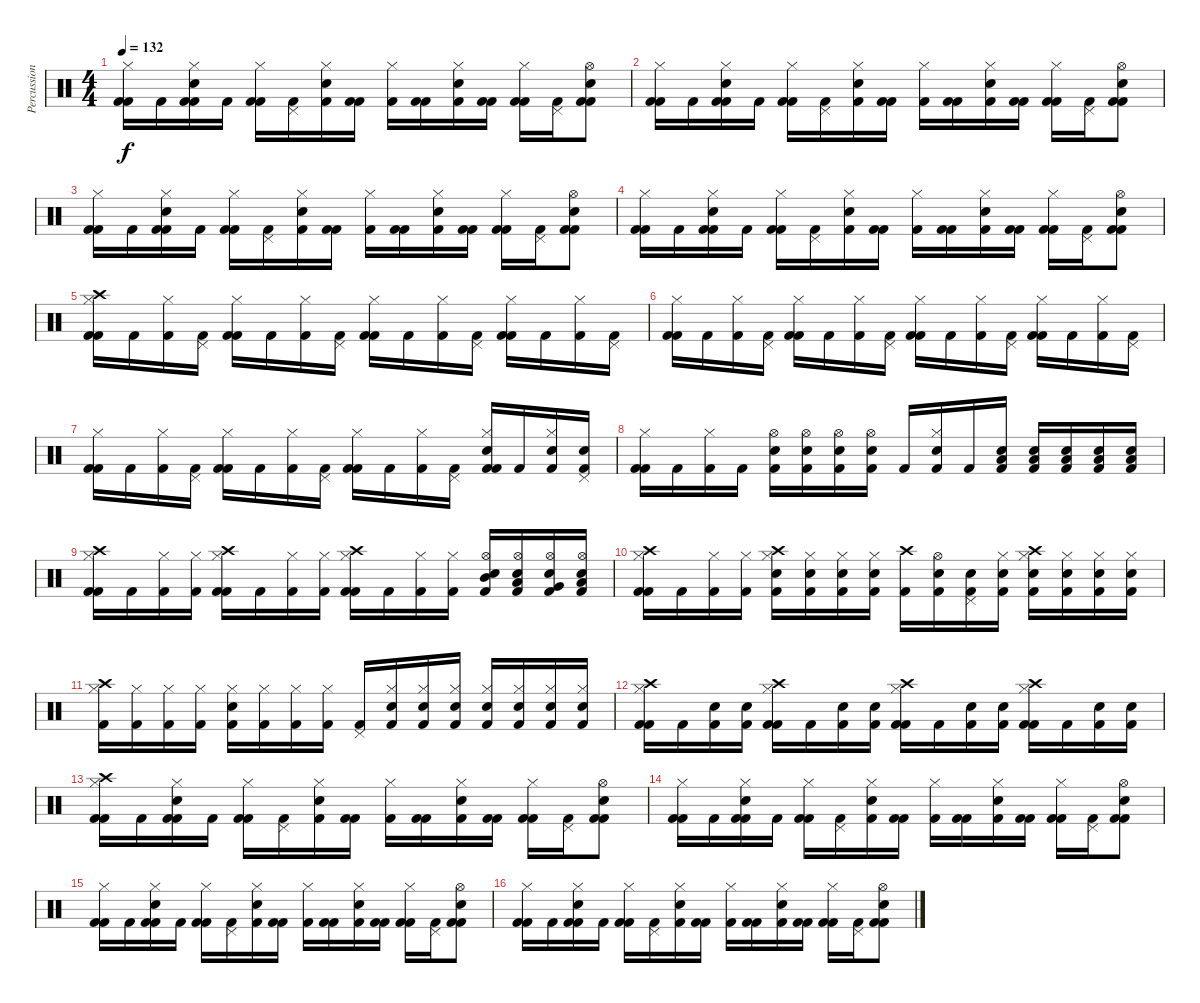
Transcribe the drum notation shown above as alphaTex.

\track ("Percussion" "Percussion") {instrument percussion}
\staff {score}
\articulation defaults
\ts (4 4)
\tempo 132
\clef neutral
\ks c
("Kick (hit) 2" "Hi-Hat (closed)" "Kick (hit) 2").16{dy f} "Kick (hit) 2".16 ("Kick (hit) 2" "Snare (hit) 2" "Hi-Hat (closed)" "Kick (hit) 2").16 "Kick (hit) 2".16 ("Kick (hit) 2" "Hi-Hat (closed)" "Kick (hit) 2").16 ("Pedal Hi-Hat (hit)" "Kick (hit) 2").16 ("Snare (hit) 2" "Hi-Hat (closed)" "Kick (hit) 2").16 ("Kick (hit) 2" "Kick (hit) 2").16 ("Hi-Hat (closed)" "Kick (hit) 2").16 ("Kick (hit) 2" "Kick (hit) 2").16 ("Snare (hit) 2" "Hi-Hat (closed)" "Kick (hit) 2").16 ("Kick (hit) 2" "Kick (hit) 2").16 ("Kick (hit) 2" "Hi-Hat (closed)" "Kick (hit) 2").16 ("Pedal Hi-Hat (hit)" "Kick (hit) 2").16 ("Kick (hit) 2" "Snare (hit) 2" "Hi-Hat (open)" "Kick (hit) 2").8 |
("Kick (hit) 2" "Hi-Hat (closed)" "Kick (hit) 2").16 "Kick (hit) 2".16 ("Kick (hit) 2" "Snare (hit) 2" "Hi-Hat (closed)" "Kick (hit) 2").16 "Kick (hit) 2".16 ("Kick (hit) 2" "Hi-Hat (closed)" "Kick (hit) 2").16 ("Pedal Hi-Hat (hit)" "Kick (hit) 2").16 ("Snare (hit) 2" "Hi-Hat (closed)" "Kick (hit) 2").16 ("Kick (hit) 2" "Kick (hit) 2").16 ("Hi-Hat (closed)" "Kick (hit) 2").16 ("Kick (hit) 2" "Kick (hit) 2").16 ("Snare (hit) 2" "Hi-Hat (closed)" "Kick (hit) 2").16 ("Kick (hit) 2" "Kick (hit) 2").16 ("Kick (hit) 2" "Hi-Hat (closed)" "Kick (hit) 2").16 ("Pedal Hi-Hat (hit)" "Kick (hit) 2").16 ("Kick (hit) 2" "Snare (hit) 2" "Hi-Hat (open)" "Kick (hit) 2").8 |
("Kick (hit) 2" "Hi-Hat (closed)" "Kick (hit) 2").16 "Kick (hit) 2".16 ("Kick (hit) 2" "Snare (hit) 2" "Hi-Hat (closed)" "Kick (hit) 2").16 "Kick (hit) 2".16 ("Kick (hit) 2" "Hi-Hat (closed)" "Kick (hit) 2").16 ("Pedal Hi-Hat (hit)" "Kick (hit) 2").16 ("Snare (hit) 2" "Hi-Hat (closed)" "Kick (hit) 2").16 ("Kick (hit) 2" "Kick (hit) 2").16 ("Hi-Hat (closed)" "Kick (hit) 2").16 ("Kick (hit) 2" "Kick (hit) 2").16 ("Snare (hit) 2" "Hi-Hat (closed)" "Kick (hit) 2").16 ("Kick (hit) 2" "Kick (hit) 2").16 ("Kick (hit) 2" "Hi-Hat (closed)" "Kick (hit) 2").16 ("Pedal Hi-Hat (hit)" "Kick (hit) 2").16 ("Kick (hit) 2" "Snare (hit) 2" "Hi-Hat (open)" "Kick (hit) 2").8 |
("Kick (hit) 2" "Hi-Hat (closed)" "Kick (hit) 2").16 "Kick (hit) 2".16 ("Kick (hit) 2" "Snare (hit) 2" "Hi-Hat (closed)" "Kick (hit) 2").16 "Kick (hit) 2".16 ("Kick (hit) 2" "Hi-Hat (closed)" "Kick (hit) 2").16 ("Pedal Hi-Hat (hit)" "Kick (hit) 2").16 ("Snare (hit) 2" "Hi-Hat (closed)" "Kick (hit) 2").16 ("Kick (hit) 2" "Kick (hit) 2").16 ("Hi-Hat (closed)" "Kick (hit) 2").16 ("Kick (hit) 2" "Kick (hit) 2").16 ("Snare (hit) 2" "Hi-Hat (closed)" "Kick (hit) 2").16 ("Kick (hit) 2" "Kick (hit) 2").16 ("Kick (hit) 2" "Hi-Hat (closed)" "Kick (hit) 2").16 ("Pedal Hi-Hat (hit)" "Kick (hit) 2").16 ("Kick (hit) 2" "Snare (hit) 2" "Hi-Hat (open)" "Kick (hit) 2").8 |
("Kick (hit) 2" "Hi-Hat (closed)" "Crash high (hit)" "Kick (hit) 2").16 "Kick (hit) 2".16 ("Hi-Hat (closed)" "Kick (hit) 2").16 ("Pedal Hi-Hat (hit)" "Kick (hit) 2").16 ("Kick (hit) 2" "Hi-Hat (closed)" "Kick (hit) 2").16 "Kick (hit) 2".16 ("Hi-Hat (closed)" "Kick (hit) 2").16 ("Pedal Hi-Hat (hit)" "Kick (hit) 2").16 ("Kick (hit) 2" "Hi-Hat (closed)" "Kick (hit) 2").16 "Kick (hit) 2".16 ("Hi-Hat (closed)" "Kick (hit) 2").16 ("Pedal Hi-Hat (hit)" "Kick (hit) 2").16 ("Kick (hit) 2" "Hi-Hat (closed)" "Kick (hit) 2").16 "Kick (hit) 2".16 ("Hi-Hat (closed)" "Kick (hit) 2").16 ("Pedal Hi-Hat (hit)" "Kick (hit) 2").16 |
("Kick (hit) 2" "Hi-Hat (closed)" "Kick (hit) 2").16 "Kick (hit) 2".16 ("Hi-Hat (closed)" "Kick (hit) 2").16 ("Pedal Hi-Hat (hit)" "Kick (hit) 2").16 ("Kick (hit) 2" "Hi-Hat (closed)" "Kick (hit) 2").16 "Kick (hit) 2".16 ("Hi-Hat (closed)" "Kick (hit) 2").16 ("Pedal Hi-Hat (hit)" "Kick (hit) 2").16 ("Kick (hit) 2" "Hi-Hat (closed)" "Kick (hit) 2").16 "Kick (hit) 2".16 ("Hi-Hat (closed)" "Kick (hit) 2").16 ("Pedal Hi-Hat (hit)" "Kick (hit) 2").16 ("Kick (hit) 2" "Hi-Hat (closed)" "Kick (hit) 2").16 "Kick (hit) 2".16 ("Hi-Hat (closed)" "Kick (hit) 2").16 ("Pedal Hi-Hat (hit)" "Kick (hit) 2").16 |
("Kick (hit) 2" "Hi-Hat (closed)" "Kick (hit) 2").16 "Kick (hit) 2".16 ("Hi-Hat (closed)" "Kick (hit) 2").16 ("Pedal Hi-Hat (hit)" "Kick (hit) 2").16 ("Kick (hit) 2" "Hi-Hat (closed)" "Kick (hit) 2").16 "Kick (hit) 2".16 ("Hi-Hat (closed)" "Kick (hit) 2").16 ("Pedal Hi-Hat (hit)" "Kick (hit) 2").16 ("Kick (hit) 2" "Hi-Hat (closed)" "Kick (hit) 2").16 "Kick (hit) 2".16 ("Hi-Hat (closed)" "Kick (hit) 2").16 ("Pedal Hi-Hat (hit)" "Kick (hit) 2").16 ("Kick (hit) 2" "Snare (hit) 2" "Hi-Hat (closed)" "Kick (hit) 2").16 "Kick (hit) 2".16 ("Snare (hit) 2" "Hi-Hat (closed)" "Kick (hit) 2").16 ("Snare (hit) 2" "Pedal Hi-Hat (hit)" "Kick (hit) 2").16 |
("Kick (hit) 2" "Hi-Hat (closed)" "Kick (hit) 2").16 "Kick (hit) 2".16 ("Hi-Hat (closed)" "Kick (hit) 2").16 "Kick (hit) 2".16 ("Snare (hit) 2" "Hi-Hat (open)" "Kick (hit) 2").16 ("Snare (hit) 2" "Hi-Hat (open)" "Kick (hit) 2").16 ("Snare (hit) 2" "Hi-Hat (open)" "Kick (hit) 2").16 ("Snare (hit) 2" "Hi-Hat (open)" "Kick (hit) 2").16 "Kick (hit) 2".16 ("Snare (hit) 2" "Hi-Hat (closed)" "Kick (hit) 2").16 "Kick (hit) 2".16 ("Snare (hit) 2" "Low Floor Tom (hit)" "Kick (hit) 2").16 ("Snare (hit) 2" "Low Floor Tom (hit)" "Kick (hit) 2").16 ("Snare (hit) 2" "Low Floor Tom (hit)" "Kick (hit) 2").16 ("Snare (hit) 2" "Low Floor Tom (hit)" "Kick (hit) 2").16 ("Snare (hit) 2" "Low Floor Tom (hit)" "Kick (hit) 2").16 |
("Kick (hit) 2" "Hi-Hat (closed)" "Crash high (hit)" "Kick (hit) 2").16 "Kick (hit) 2".16 ("Hi-Hat (closed)" "Kick (hit) 2").16 ("Hi-Hat (closed)" "Kick (hit) 2").16 ("Kick (hit) 2" "Hi-Hat (closed)" "Crash high (hit)" "Kick (hit) 2").16 "Kick (hit) 2".16 ("Hi-Hat (closed)" "Kick (hit) 2").16 ("Hi-Hat (closed)" "Kick (hit) 2").16 ("Kick (hit) 2" "Hi-Hat (closed)" "Crash high (hit)" "Kick (hit) 2").16 "Kick (hit) 2".16 ("Hi-Hat (closed)" "Kick (hit) 2").16 ("Hi-Hat (closed)" "Kick (hit) 2").16 ("Snare (hit) 2" "Hi-Hat (open)" "Mid Tom (hit)" "Kick (hit) 2").16 ("Snare (hit) 2" "Low Tom (hit)" "Hi-Hat (open)" "Kick (hit) 2").16 ("Snare (hit) 2" "Very Low Tom (hit)" "Hi-Hat (open)" "Kick (hit) 2").16 ("Snare (hit) 2" "Low Floor Tom (hit)" "Hi-Hat (open)" "Kick (hit) 2").16 |
("Kick (hit) 2" "Hi-Hat (closed)" "Crash high (hit)" "Kick (hit) 2").16 "Kick (hit) 2".16 ("Hi-Hat (closed)" "Kick (hit) 2").16 ("Hi-Hat (closed)" "Kick (hit) 2").16 ("Snare (hit) 2" "Hi-Hat (closed)" "Crash high (hit)" "Kick (hit) 2").16 ("Snare (hit) 2" "Hi-Hat (closed)" "Kick (hit) 2").16 ("Snare (hit) 2" "Hi-Hat (closed)" "Kick (hit) 2").16 ("Snare (hit) 2" "Hi-Hat (closed)" "Kick (hit) 2").16 ("Crash high (hit)" "Kick (hit) 2").16 ("Snare (hit) 2" "Hi-Hat (open)" "Kick (hit) 2").16 ("Snare (hit) 2" "Pedal Hi-Hat (hit)" "Kick (hit) 2").16 ("Snare (hit) 2" "Hi-Hat (closed)" "Kick (hit) 2").16 ("Snare (hit) 2" "Hi-Hat (closed)" "Crash high (hit)" "Kick (hit) 2").16 ("Snare (hit) 2" "Hi-Hat (closed)" "Kick (hit) 2").16 ("Snare (hit) 2" "Hi-Hat (closed)" "Kick (hit) 2").16 ("Snare (hit) 2" "Hi-Hat (closed)" "Kick (hit) 2").16 |
("Kick (hit) 2" "Hi-Hat (closed)" "Crash high (hit)").16 ("Kick (hit) 2" "Hi-Hat (closed)").16 ("Kick (hit) 2" "Hi-Hat (closed)").16 ("Kick (hit) 2" "Hi-Hat (closed)").16 ("Snare (hit) 2" "Hi-Hat (closed)" "Kick (hit) 2").16 ("Hi-Hat (closed)" "Kick (hit) 2").16 ("Kick (hit) 2" "Hi-Hat (closed)").16 ("Kick (hit) 2" "Hi-Hat (closed)").16 ("Pedal Hi-Hat (hit)" "Kick (hit) 2").16 ("Kick (hit) 2" "Snare (hit) 2" "Hi-Hat (closed)").16 ("Kick (hit) 2" "Snare (hit) 2" "Hi-Hat (closed)").16 ("Kick (hit) 2" "Snare (hit) 2" "Hi-Hat (closed)").16 ("Kick (hit) 2" "Snare (hit) 2" "Hi-Hat (closed)").16 ("Kick (hit) 2" "Snare (hit) 2" "Hi-Hat (closed)").16 ("Kick (hit) 2" "Snare (hit) 2" "Hi-Hat (closed)").16 ("Kick (hit) 2" "Snare (hit) 2" "Hi-Hat (closed)").16 |
("Kick (hit) 2" "Hi-Hat (closed)" "Crash high (hit)" "Kick (hit) 2").16 "Kick (hit) 2".16 ("Snare (hit) 2" "Kick (hit) 2").16 ("Snare (hit) 2" "Kick (hit) 2").16 ("Kick (hit) 2" "Hi-Hat (closed)" "Crash high (hit)" "Kick (hit) 2").16 "Kick (hit) 2".16 ("Snare (hit) 2" "Kick (hit) 2").16 ("Snare (hit) 2" "Kick (hit) 2").16 ("Kick (hit) 2" "Hi-Hat (closed)" "Crash high (hit)" "Kick (hit) 2").16 "Kick (hit) 2".16 ("Snare (hit) 2" "Kick (hit) 2").16 ("Snare (hit) 2" "Kick (hit) 2").16 ("Kick (hit) 2" "Hi-Hat (closed)" "Crash high (hit)" "Kick (hit) 2").16 "Kick (hit) 2".16 ("Snare (hit) 2" "Kick (hit) 2").16 ("Snare (hit) 2" "Kick (hit) 2").16 |
("Kick (hit) 2" "Hi-Hat (closed)" "Crash high (hit)" "Kick (hit) 2").16 "Kick (hit) 2".16 ("Kick (hit) 2" "Snare (hit) 2" "Hi-Hat (closed)" "Kick (hit) 2").16 "Kick (hit) 2".16 ("Kick (hit) 2" "Hi-Hat (closed)" "Kick (hit) 2").16 ("Pedal Hi-Hat (hit)" "Kick (hit) 2").16 ("Snare (hit) 2" "Hi-Hat (closed)" "Kick (hit) 2").16 ("Kick (hit) 2" "Kick (hit) 2").16 ("Hi-Hat (closed)" "Kick (hit) 2").16 ("Kick (hit) 2" "Kick (hit) 2").16 ("Snare (hit) 2" "Hi-Hat (closed)" "Kick (hit) 2").16 ("Kick (hit) 2" "Kick (hit) 2").16 ("Kick (hit) 2" "Hi-Hat (closed)" "Kick (hit) 2").16 ("Pedal Hi-Hat (hit)" "Kick (hit) 2").16 ("Kick (hit) 2" "Snare (hit) 2" "Hi-Hat (open)" "Kick (hit) 2").8 |
("Kick (hit) 2" "Hi-Hat (closed)" "Kick (hit) 2").16 "Kick (hit) 2".16 ("Kick (hit) 2" "Snare (hit) 2" "Hi-Hat (closed)" "Kick (hit) 2").16 "Kick (hit) 2".16 ("Kick (hit) 2" "Hi-Hat (closed)" "Kick (hit) 2").16 ("Pedal Hi-Hat (hit)" "Kick (hit) 2").16 ("Snare (hit) 2" "Hi-Hat (closed)" "Kick (hit) 2").16 ("Kick (hit) 2" "Kick (hit) 2").16 ("Hi-Hat (closed)" "Kick (hit) 2").16 ("Kick (hit) 2" "Kick (hit) 2").16 ("Snare (hit) 2" "Hi-Hat (closed)" "Kick (hit) 2").16 ("Kick (hit) 2" "Kick (hit) 2").16 ("Kick (hit) 2" "Hi-Hat (closed)" "Kick (hit) 2").16 ("Pedal Hi-Hat (hit)" "Kick (hit) 2").16 ("Kick (hit) 2" "Snare (hit) 2" "Hi-Hat (open)" "Kick (hit) 2").8 |
("Kick (hit) 2" "Hi-Hat (closed)" "Kick (hit) 2").16 "Kick (hit) 2".16 ("Kick (hit) 2" "Snare (hit) 2" "Hi-Hat (closed)" "Kick (hit) 2").16 "Kick (hit) 2".16 ("Kick (hit) 2" "Hi-Hat (closed)" "Kick (hit) 2").16 ("Pedal Hi-Hat (hit)" "Kick (hit) 2").16 ("Snare (hit) 2" "Hi-Hat (closed)" "Kick (hit) 2").16 ("Kick (hit) 2" "Kick (hit) 2").16 ("Hi-Hat (closed)" "Kick (hit) 2").16 ("Kick (hit) 2" "Kick (hit) 2").16 ("Snare (hit) 2" "Hi-Hat (closed)" "Kick (hit) 2").16 ("Kick (hit) 2" "Kick (hit) 2").16 ("Kick (hit) 2" "Hi-Hat (closed)" "Kick (hit) 2").16 ("Pedal Hi-Hat (hit)" "Kick (hit) 2").16 ("Kick (hit) 2" "Snare (hit) 2" "Hi-Hat (open)" "Kick (hit) 2").8 |
("Kick (hit) 2" "Hi-Hat (closed)" "Kick (hit) 2").16 "Kick (hit) 2".16 ("Kick (hit) 2" "Snare (hit) 2" "Hi-Hat (closed)" "Kick (hit) 2").16 "Kick (hit) 2".16 ("Kick (hit) 2" "Hi-Hat (closed)" "Kick (hit) 2").16 ("Pedal Hi-Hat (hit)" "Kick (hit) 2").16 ("Snare (hit) 2" "Hi-Hat (closed)" "Kick (hit) 2").16 ("Kick (hit) 2" "Kick (hit) 2").16 ("Hi-Hat (closed)" "Kick (hit) 2").16 ("Kick (hit) 2" "Kick (hit) 2").16 ("Snare (hit) 2" "Hi-Hat (closed)" "Kick (hit) 2").16 ("Kick (hit) 2" "Kick (hit) 2").16 ("Kick (hit) 2" "Hi-Hat (closed)" "Kick (hit) 2").16 ("Pedal Hi-Hat (hit)" "Kick (hit) 2").16 ("Kick (hit) 2" "Snare (hit) 2" "Hi-Hat (open)" "Kick (hit) 2").8
